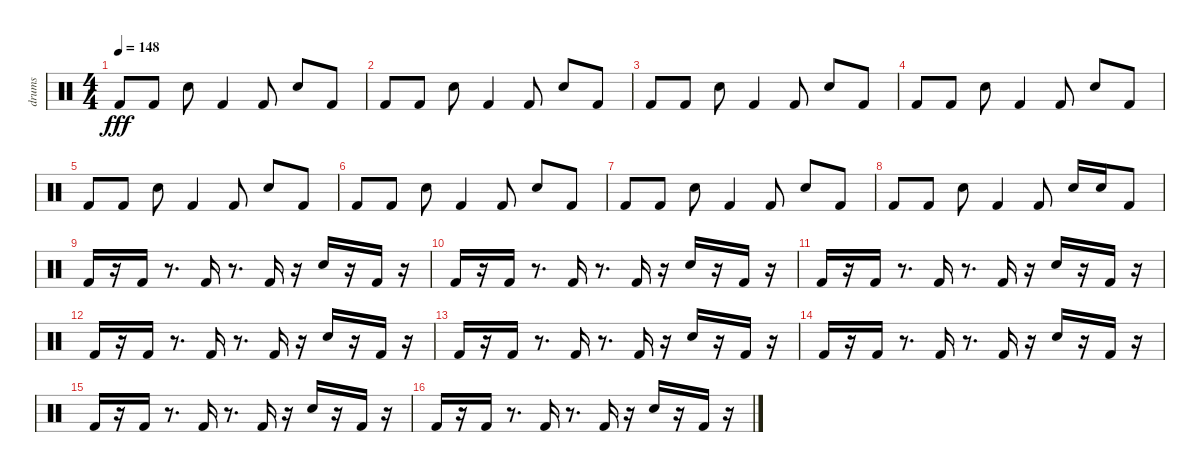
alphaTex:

\track ("drums" "drums") {instrument percussion}
\staff {score}
\articulation defaults
\ts (4 4)
\tempo 148
\clef neutral
\ks c "Kick (hit) 2".8{dy fff} "Kick (hit) 2".8 "Electric Snare (hit)".8 "Kick (hit) 2".4 "Kick (hit) 2".8 "Electric Snare (hit)".8 "Kick (hit) 2".8
|
"Kick (hit) 2".8 "Kick (hit) 2".8 "Electric Snare (hit)".8 "Kick (hit) 2".4 "Kick (hit) 2".8 "Electric Snare (hit)".8 "Kick (hit) 2".8 |
"Kick (hit) 2".8 "Kick (hit) 2".8 "Electric Snare (hit)".8 "Kick (hit) 2".4 "Kick (hit) 2".8 "Electric Snare (hit)".8 "Kick (hit) 2".8 |
"Kick (hit) 2".8 "Kick (hit) 2".8 "Electric Snare (hit)".8 "Kick (hit) 2".4 "Kick (hit) 2".8 "Electric Snare (hit)".8 "Kick (hit) 2".8 |
"Kick (hit) 2".8 "Kick (hit) 2".8 "Electric Snare (hit)".8 "Kick (hit) 2".4 "Kick (hit) 2".8 "Electric Snare (hit)".8 "Kick (hit) 2".8 |
"Kick (hit) 2".8 "Kick (hit) 2".8 "Electric Snare (hit)".8 "Kick (hit) 2".4 "Kick (hit) 2".8 "Electric Snare (hit)".8 "Kick (hit) 2".8 |
"Kick (hit) 2".8 "Kick (hit) 2".8 "Electric Snare (hit)".8 "Kick (hit) 2".4 "Kick (hit) 2".8 "Electric Snare (hit)".8 "Kick (hit) 2".8 |
"Kick (hit) 2".8 "Kick (hit) 2".8 "Electric Snare (hit)".8 "Kick (hit) 2".4 "Kick (hit) 2".8 "Electric Snare (hit)".16 "Electric Snare (hit)".16 "Kick (hit) 2".8 |
"Kick (hit) 2".16 r.16 "Kick (hit) 2".16 r.8{d} "Kick (hit) 2".16 r.8{d} "Kick (hit) 2".16 r.16 "Electric Snare (hit)".16 r.16 "Kick (hit) 2".16 r.16 |
"Kick (hit) 2".16 r.16 "Kick (hit) 2".16 r.8{d} "Kick (hit) 2".16 r.8{d} "Kick (hit) 2".16 r.16 "Electric Snare (hit)".16 r.16 "Kick (hit) 2".16 r.16 |
"Kick (hit) 2".16 r.16 "Kick (hit) 2".16 r.8{d} "Kick (hit) 2".16 r.8{d} "Kick (hit) 2".16 r.16 "Electric Snare (hit)".16 r.16 "Kick (hit) 2".16 r.16 |
"Kick (hit) 2".16 r.16 "Kick (hit) 2".16 r.8{d} "Kick (hit) 2".16 r.8{d} "Kick (hit) 2".16 r.16 "Electric Snare (hit)".16 r.16 "Kick (hit) 2".16 r.16 |
"Kick (hit) 2".16 r.16 "Kick (hit) 2".16 r.8{d} "Kick (hit) 2".16 r.8{d} "Kick (hit) 2".16 r.16 "Electric Snare (hit)".16 r.16 "Kick (hit) 2".16 r.16 |
"Kick (hit) 2".16 r.16 "Kick (hit) 2".16 r.8{d} "Kick (hit) 2".16 r.8{d} "Kick (hit) 2".16 r.16 "Electric Snare (hit)".16 r.16 "Kick (hit) 2".16 r.16 |
"Kick (hit) 2".16 r.16 "Kick (hit) 2".16 r.8{d} "Kick (hit) 2".16 r.8{d} "Kick (hit) 2".16 r.16 "Electric Snare (hit)".16 r.16 "Kick (hit) 2".16 r.16 |
"Kick (hit) 2".16 r.16 "Kick (hit) 2".16 r.8{d} "Kick (hit) 2".16 r.8{d} "Kick (hit) 2".16 r.16 "Electric Snare (hit)".16 r.16 "Kick (hit) 2".16 r.16
